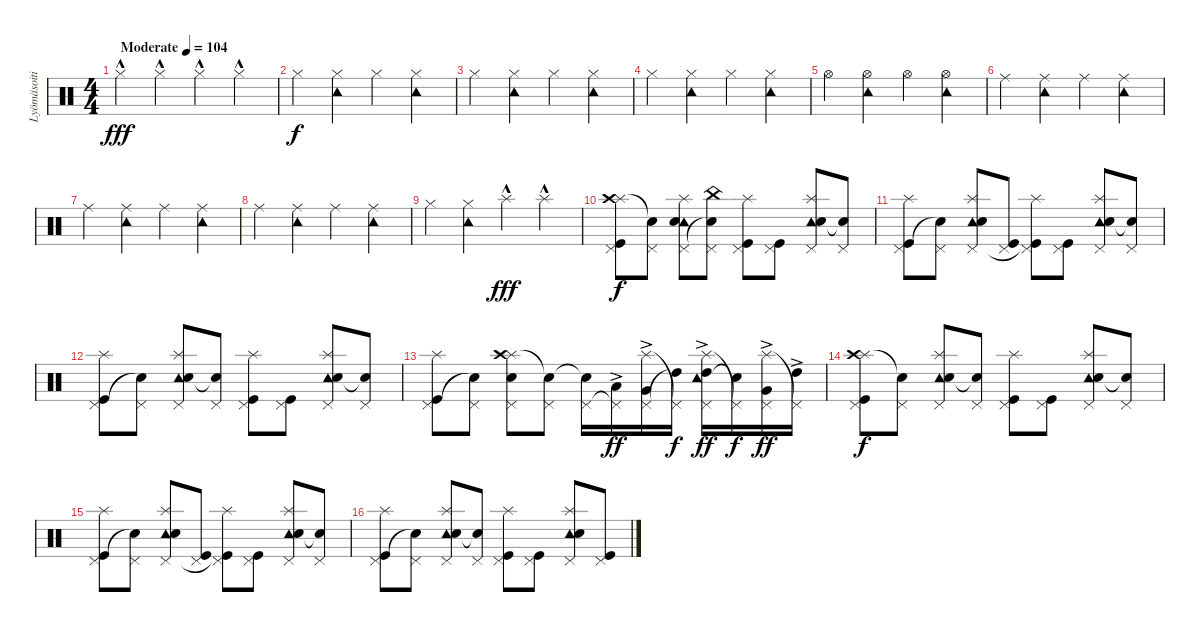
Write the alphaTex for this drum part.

\track ("Lyömäsoitin" "Lyömäsoiti") {instrument percussion}
\staff {score}
\articulation defaults
\ts (4 4)
\tempo (104 "Moderate")
\clef neutral
\ks c "Hi-Hat (closed)"{hac}.4{dy fff} "Hi-Hat (closed)"{hac}.4 "Hi-Hat (closed)"{hac}.4 "Hi-Hat (closed)"{hac}.4
|
"Hi-Hat (closed)".4{dy f} ("Hi-Hat (closed)" "Tambourine (hit)").4 "Hi-Hat (closed)".4 ("Hi-Hat (closed)" "Tambourine (hit)").4 |
"Hi-Hat (closed)".4 ("Hi-Hat (closed)" "Tambourine (hit)").4 "Hi-Hat (closed)".4 ("Hi-Hat (closed)" "Tambourine (hit)").4 |
"Hi-Hat (closed)".4 ("Hi-Hat (closed)" "Tambourine (hit)").4 "Hi-Hat (closed)".4 ("Hi-Hat (closed)" "Tambourine (hit)").4 |
"Hi-Hat (open)".4 ("Hi-Hat (open)" "Tambourine (hit)").4 "Hi-Hat (open)".4 ("Hi-Hat (open)" "Tambourine (hit)").4 |
"Ride (middle)".4 ("Ride (middle)" "Tambourine (hit)").4 "Ride (middle)".4 ("Ride (middle)" "Tambourine (hit)").4 |
"Ride (middle)".4 ("Ride (middle)" "Tambourine (hit)").4 "Ride (middle)".4 ("Ride (middle)" "Tambourine (hit)").4 |
"Ride (middle)".4 ("Ride (middle)" "Tambourine (hit)").4 "Ride (middle)".4 ("Ride (middle)" "Tambourine (hit)").4 |
"Hi-Hat (closed)".4 ("Hi-Hat (closed)" "Tambourine (hit)").4 "Splash (hit)"{hac}.4{dy fff} "Splash (hit)"{hac}.4 |
("Splash (hit)" "Crash high (hit)" "Pedal Hi-Hat (hit)" "Kick (hit)").8{dy f volume 14} ("Pedal Hi-Hat (hit)" "Snare (hit)"{t}).8 ("Splash (hit)" "Tambourine (hit)" "Pedal Hi-Hat (hit)" "Snare (hit) 2").8 ("China (hit)" "Pedal Hi-Hat (hit)" "Snare (hit)"{t}).8 ("Splash (hit)" "Pedal Hi-Hat (hit)" "Kick (hit)").8 ("Pedal Hi-Hat (hit)" "Kick (hit)").8 ("Splash (hit)" "Tambourine (hit)" "Pedal Hi-Hat (hit)" "Snare (hit) 2").8 ("Pedal Hi-Hat (hit)" "Snare (hit)"{t}).8 |
("Splash (hit)" "Pedal Hi-Hat (hit)" "Kick (hit)").8 ("Pedal Hi-Hat (hit)" "Snare (hit)"{t}).8 ("Splash (hit)" "Tambourine (hit)" "Pedal Hi-Hat (hit)" "Snare (hit) 2").8 ("Pedal Hi-Hat (hit)" "Kick (hit)").8 ("Splash (hit)" "Pedal Hi-Hat (hit)" "Kick (hit)"{t}).8 ("Pedal Hi-Hat (hit)" "Kick (hit)").8 ("Splash (hit)" "Tambourine (hit)" "Pedal Hi-Hat (hit)" "Snare (hit) 2").8 ("Pedal Hi-Hat (hit)" "Snare (hit) 2"{t}).8 |
("Splash (hit)" "Pedal Hi-Hat (hit)" "Kick (hit)").8 ("Pedal Hi-Hat (hit)" "Snare (hit)"{t}).8 ("Splash (hit)" "Tambourine (hit)" "Pedal Hi-Hat (hit)" "Snare (hit) 2").8 ("Pedal Hi-Hat (hit)" "Snare (hit)"{t}).8 ("Splash (hit)" "Pedal Hi-Hat (hit)" "Kick (hit)").8 ("Pedal Hi-Hat (hit)" "Kick (hit)").8 ("Splash (hit)" "Tambourine (hit)" "Pedal Hi-Hat (hit)" "Snare (hit) 2").8 ("Pedal Hi-Hat (hit)" "Snare (hit)"{t}).8 |
("Splash (hit)" "Pedal Hi-Hat (hit)" "Kick (hit)").8 ("Pedal Hi-Hat (hit)" "Snare (hit)"{t}).8 ("Splash (hit)" "Crash high (hit)" "Pedal Hi-Hat (hit)" "Snare (hit) 2").8 ("Pedal Hi-Hat (hit)" "Snare (hit)"{t}).8 ("Pedal Hi-Hat (hit)" "Snare (hit)"{t}).16 ("Pedal Hi-Hat (hit)"{t} "Low Tom (hit)"{ac}).16{dy ff} ("Splash (hit)"{ac} "Pedal Hi-Hat (hit)"{ac} "Very Low Tom (hit)"{ac}).16 ("Pedal Hi-Hat (hit)"{t} "High Tom (hit)"{t}).16{dy f} ("Splash (hit)"{ac} "Tambourine (hit)"{ac} "Pedal Hi-Hat (hit)"{ac} "High Tom (hit)"{ac}).16{dy ff} ("Pedal Hi-Hat (hit)"{t} "Snare (hit)"{t}).16{dy f} ("Splash (hit)"{ac} "Pedal Hi-Hat (hit)"{ac} "Very Low Tom (hit)"{ac}).16{dy ff} ("Pedal Hi-Hat (hit)"{t} "High Tom (hit)"{ac}).16 |
("Splash (hit)" "Crash high (hit)" "Pedal Hi-Hat (hit)" "Kick (hit)").8{dy f} ("Pedal Hi-Hat (hit)" "Snare (hit)"{t}).8 ("Splash (hit)" "Tambourine (hit)" "Pedal Hi-Hat (hit)" "Snare (hit) 2").8 ("Pedal Hi-Hat (hit)" "Snare (hit)"{t}).8 ("Splash (hit)" "Pedal Hi-Hat (hit)" "Kick (hit)").8 ("Pedal Hi-Hat (hit)" "Kick (hit)").8 ("Splash (hit)" "Tambourine (hit)" "Pedal Hi-Hat (hit)" "Snare (hit) 2").8 ("Pedal Hi-Hat (hit)" "Snare (hit)"{t}).8 |
("Splash (hit)" "Pedal Hi-Hat (hit)" "Kick (hit)").8 ("Pedal Hi-Hat (hit)" "Snare (hit)"{t}).8 ("Splash (hit)" "Tambourine (hit)" "Pedal Hi-Hat (hit)" "Snare (hit) 2").8 ("Pedal Hi-Hat (hit)" "Kick (hit)").8 ("Splash (hit)" "Pedal Hi-Hat (hit)" "Kick (hit)"{t}).8 ("Pedal Hi-Hat (hit)" "Kick (hit)").8 ("Splash (hit)" "Tambourine (hit)" "Pedal Hi-Hat (hit)" "Snare (hit) 2").8 ("Pedal Hi-Hat (hit)" "Snare (hit) 2"{t}).8 |
("Splash (hit)" "Pedal Hi-Hat (hit)" "Kick (hit)").8 ("Pedal Hi-Hat (hit)" "Snare (hit)"{t}).8 ("Splash (hit)" "Tambourine (hit)" "Pedal Hi-Hat (hit)" "Snare (hit) 2").8 ("Pedal Hi-Hat (hit)" "Snare (hit)"{t}).8 ("Splash (hit)" "Pedal Hi-Hat (hit)" "Kick (hit)").8 ("Pedal Hi-Hat (hit)" "Kick (hit)").8 ("Splash (hit)" "Tambourine (hit)" "Pedal Hi-Hat (hit)" "Snare (hit) 2").8 ("Pedal Hi-Hat (hit)" "Kick (hit)").8
